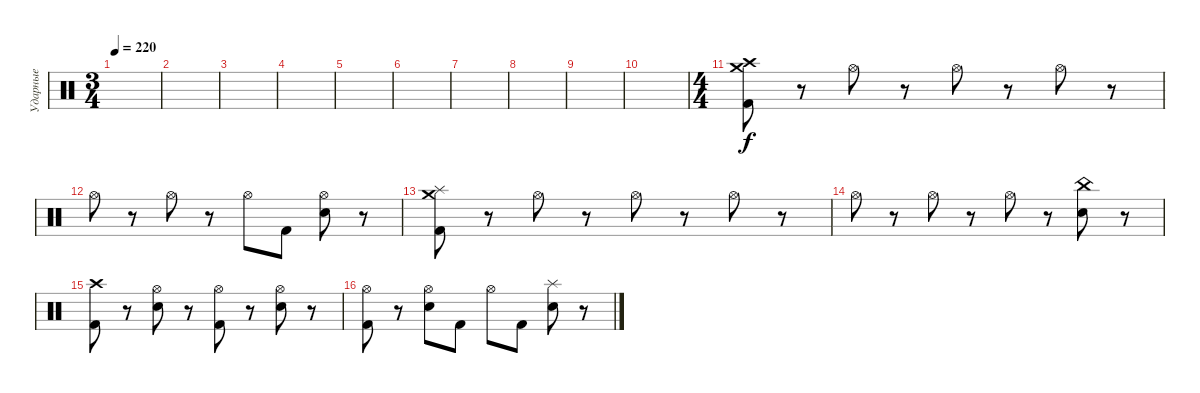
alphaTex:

\track ("Ударные" "Ударные") {instrument percussion}
\staff {score}
\articulation defaults
\ts (3 4)
\tempo 220
\clef neutral
\ks c
|
|
|
|
|
|
|
|
|
|
\ts (4 4)
("Kick (hit) 2" "Crash high (hit)" "Crash medium (hit)").8 r.8 "Hi-Hat (open)".8 r.8 "Hi-Hat (open)".8 r.8 "Hi-Hat (open)".8 r.8 |
"Hi-Hat (open)".8 r.8 "Hi-Hat (open)".8 r.8 "Hi-Hat (open)".8 "Kick (hit) 2".8 ("Electric Snare (hit)" "Hi-Hat (open)").8 r.8 |
("Kick (hit) 2" "Crash medium (hit)" "Splash (hit)").8 r.8 "Hi-Hat (open)".8 r.8 "Hi-Hat (open)".8 r.8 "Hi-Hat (open)".8 r.8 |
"Hi-Hat (open)".8 r.8 "Hi-Hat (open)".8 r.8 "Hi-Hat (open)".8 r.8 ("Electric Snare (hit)" "China (hit)").8 r.8 |
("Kick (hit) 2" "Crash high (hit)").8 r.8 ("Electric Snare (hit)" "Hi-Hat (open)").8 r.8 ("Kick (hit) 2" "Hi-Hat (open)").8 r.8 ("Electric Snare (hit)" "Hi-Hat (open)").8 r.8 |
("Kick (hit) 2" "Hi-Hat (open)").8 r.8 ("Electric Snare (hit)" "Hi-Hat (open)").8 "Kick (hit) 2".8 "Hi-Hat (open)".8 "Kick (hit) 2".8 ("Electric Snare (hit)" "Splash (hit)").8 r.8
